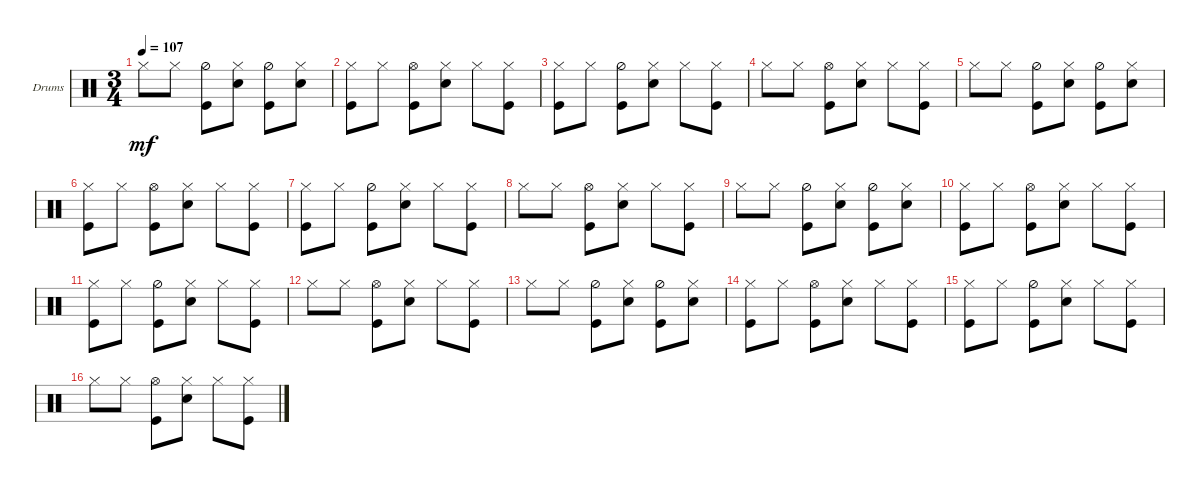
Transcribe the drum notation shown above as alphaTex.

\defaultSystemsLayout 4
\bracketExtendMode groupsimilarinstruments
\firstSystemTrackNameOrientation horizontal
\otherSystemsTrackNameOrientation horizontal
\track ("Drums" "Drums") {instrument percussion}
\staff {score}
\articulation defaults
\ts (3 4)
\tempo 107
\clef neutral
\ks c "Hi-Hat (closed)".8{dy mf} "Hi-Hat (closed)".8
("Hi-Hat (half)" "Kick (hit)").8 ("Hi-Hat (closed)" "Snare (hit) 2").8 ("Hi-Hat (half)" "Kick (hit)").8 ("Hi-Hat (closed)" "Snare (hit) 2").8 |
("Hi-Hat (closed)" "Kick (hit)").8 "Hi-Hat (closed)".8 ("Hi-Hat (open)" "Kick (hit)").8 ("Snare (hit) 2" "Hi-Hat (closed)").8 "Hi-Hat (closed)".8 ("Hi-Hat (closed)" "Kick (hit)").8 |
("Hi-Hat (closed)" "Kick (hit)").8 "Hi-Hat (closed)".8 ("Hi-Hat (half)" "Kick (hit)").8 ("Hi-Hat (closed)" "Snare (hit) 2").8 "Hi-Hat (closed)".8 ("Hi-Hat (closed)" "Kick (hit)").8 |
"Hi-Hat (closed)".8 "Hi-Hat (closed)".8 ("Hi-Hat (open)" "Kick (hit)").8 ("Snare (hit) 2" "Hi-Hat (closed)").8 "Hi-Hat (closed)".8 ("Kick (hit)" "Hi-Hat (closed)").8 |
"Hi-Hat (closed)".8 "Hi-Hat (closed)".8 ("Hi-Hat (half)" "Kick (hit)").8 ("Hi-Hat (closed)" "Snare (hit) 2").8 ("Hi-Hat (half)" "Kick (hit)").8 ("Hi-Hat (closed)" "Snare (hit) 2").8 |
("Hi-Hat (closed)" "Kick (hit)").8 "Hi-Hat (closed)".8 ("Hi-Hat (open)" "Kick (hit)").8 ("Snare (hit) 2" "Hi-Hat (closed)").8 "Hi-Hat (closed)".8 ("Hi-Hat (closed)" "Kick (hit)").8 |
("Hi-Hat (closed)" "Kick (hit)").8 "Hi-Hat (closed)".8 ("Hi-Hat (half)" "Kick (hit)").8 ("Hi-Hat (closed)" "Snare (hit) 2").8 "Hi-Hat (closed)".8 ("Hi-Hat (closed)" "Kick (hit)").8 |
"Hi-Hat (closed)".8 "Hi-Hat (closed)".8 ("Hi-Hat (open)" "Kick (hit)").8 ("Snare (hit) 2" "Hi-Hat (closed)").8 "Hi-Hat (closed)".8 ("Kick (hit)" "Hi-Hat (closed)").8 |
"Hi-Hat (closed)".8 "Hi-Hat (closed)".8 ("Hi-Hat (half)" "Kick (hit)").8 ("Hi-Hat (closed)" "Snare (hit) 2").8 ("Hi-Hat (half)" "Kick (hit)").8 ("Hi-Hat (closed)" "Snare (hit) 2").8 |
("Hi-Hat (closed)" "Kick (hit)").8 "Hi-Hat (closed)".8 ("Hi-Hat (open)" "Kick (hit)").8 ("Snare (hit) 2" "Hi-Hat (closed)").8 "Hi-Hat (closed)".8 ("Hi-Hat (closed)" "Kick (hit)").8 |
("Hi-Hat (closed)" "Kick (hit)").8 "Hi-Hat (closed)".8 ("Hi-Hat (half)" "Kick (hit)").8 ("Hi-Hat (closed)" "Snare (hit) 2").8 "Hi-Hat (closed)".8 ("Hi-Hat (closed)" "Kick (hit)").8 |
"Hi-Hat (closed)".8 "Hi-Hat (closed)".8 ("Hi-Hat (open)" "Kick (hit)").8 ("Snare (hit) 2" "Hi-Hat (closed)").8 "Hi-Hat (closed)".8 ("Kick (hit)" "Hi-Hat (closed)").8 |
"Hi-Hat (closed)".8 "Hi-Hat (closed)".8 ("Hi-Hat (half)" "Kick (hit)").8 ("Hi-Hat (closed)" "Snare (hit) 2").8 ("Hi-Hat (half)" "Kick (hit)").8 ("Hi-Hat (closed)" "Snare (hit) 2").8 |
("Hi-Hat (closed)" "Kick (hit)").8 "Hi-Hat (closed)".8 ("Hi-Hat (open)" "Kick (hit)").8 ("Snare (hit) 2" "Hi-Hat (closed)").8 "Hi-Hat (closed)".8 ("Hi-Hat (closed)" "Kick (hit)").8 |
("Hi-Hat (closed)" "Kick (hit)").8 "Hi-Hat (closed)".8 ("Hi-Hat (half)" "Kick (hit)").8 ("Hi-Hat (closed)" "Snare (hit) 2").8 "Hi-Hat (closed)".8 ("Hi-Hat (closed)" "Kick (hit)").8 |
"Hi-Hat (closed)".8 "Hi-Hat (closed)".8 ("Hi-Hat (open)" "Kick (hit)").8 ("Snare (hit) 2" "Hi-Hat (closed)").8 "Hi-Hat (closed)".8 ("Kick (hit)" "Hi-Hat (closed)").8
